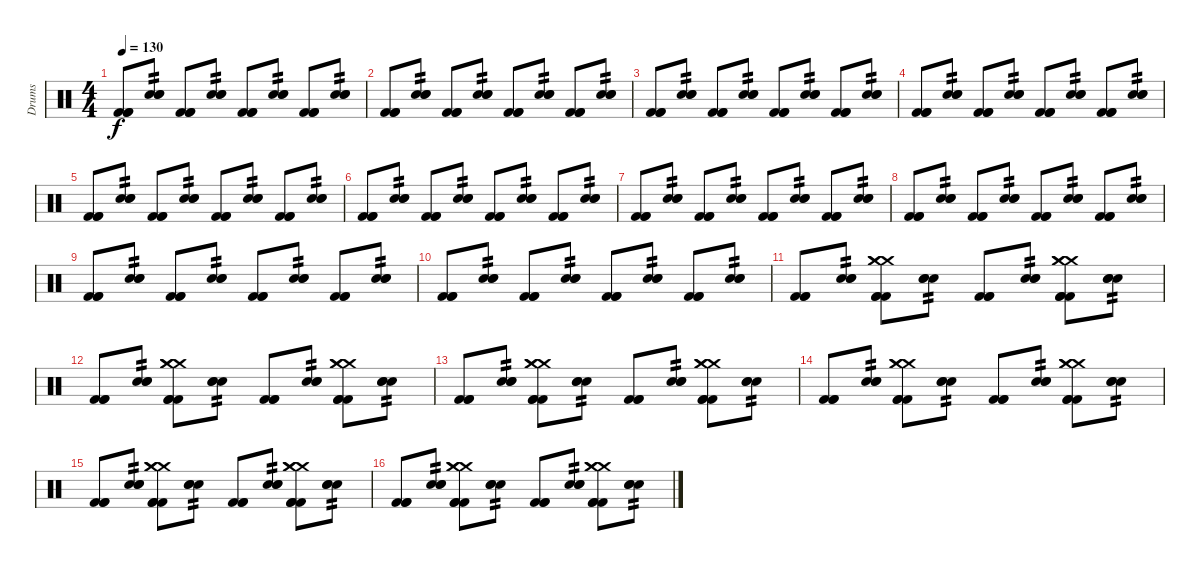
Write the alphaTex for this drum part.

\track ("Drums" "Drums") {instrument percussion}
\staff {score}
\articulation defaults
\ts (4 4)
\tempo 130
\clef neutral
\ks c
("Kick (hit) 2" "Kick (hit) 2" "Kick (hit) 2").8{dy f} ("Electric Snare (hit)" "Electric Snare (hit)" "Electric Snare (hit)").8{tp 2} ("Kick (hit) 2" "Kick (hit) 2" "Kick (hit) 2").8 ("Electric Snare (hit)" "Electric Snare (hit)" "Electric Snare (hit)").8{tp 2} ("Kick (hit) 2" "Kick (hit) 2" "Kick (hit) 2").8 ("Electric Snare (hit)" "Electric Snare (hit)" "Electric Snare (hit)").8{tp 2} ("Kick (hit) 2" "Kick (hit) 2" "Kick (hit) 2").8 ("Electric Snare (hit)" "Electric Snare (hit)" "Electric Snare (hit)").8{tp 2} |
("Kick (hit) 2" "Kick (hit) 2" "Kick (hit) 2").8 ("Electric Snare (hit)" "Electric Snare (hit)" "Electric Snare (hit)").8{tp 2} ("Kick (hit) 2" "Kick (hit) 2" "Kick (hit) 2").8 ("Electric Snare (hit)" "Electric Snare (hit)" "Electric Snare (hit)").8{tp 2} ("Kick (hit) 2" "Kick (hit) 2" "Kick (hit) 2").8 ("Electric Snare (hit)" "Electric Snare (hit)" "Electric Snare (hit)").8{tp 2} ("Kick (hit) 2" "Kick (hit) 2" "Kick (hit) 2").8 ("Electric Snare (hit)" "Electric Snare (hit)" "Electric Snare (hit)").8{tp 2} |
("Kick (hit) 2" "Kick (hit) 2" "Kick (hit) 2").8 ("Electric Snare (hit)" "Electric Snare (hit)" "Electric Snare (hit)").8{tp 2} ("Kick (hit) 2" "Kick (hit) 2" "Kick (hit) 2").8 ("Electric Snare (hit)" "Electric Snare (hit)" "Electric Snare (hit)").8{tp 2} ("Kick (hit) 2" "Kick (hit) 2" "Kick (hit) 2").8 ("Electric Snare (hit)" "Electric Snare (hit)" "Electric Snare (hit)").8{tp 2} ("Kick (hit) 2" "Kick (hit) 2" "Kick (hit) 2").8 ("Electric Snare (hit)" "Electric Snare (hit)" "Electric Snare (hit)").8{tp 2} |
("Kick (hit) 2" "Kick (hit) 2" "Kick (hit) 2").8 ("Electric Snare (hit)" "Electric Snare (hit)" "Electric Snare (hit)").8{tp 2} ("Kick (hit) 2" "Kick (hit) 2" "Kick (hit) 2").8 ("Electric Snare (hit)" "Electric Snare (hit)" "Electric Snare (hit)").8{tp 2} ("Kick (hit) 2" "Kick (hit) 2" "Kick (hit) 2").8 ("Electric Snare (hit)" "Electric Snare (hit)" "Electric Snare (hit)").8{tp 2} ("Kick (hit) 2" "Kick (hit) 2" "Kick (hit) 2").8 ("Electric Snare (hit)" "Electric Snare (hit)" "Electric Snare (hit)").8{tp 2} |
("Kick (hit) 2" "Kick (hit) 2" "Kick (hit) 2").8 ("Electric Snare (hit)" "Electric Snare (hit)" "Electric Snare (hit)").8{tp 2} ("Kick (hit) 2" "Kick (hit) 2" "Kick (hit) 2").8 ("Electric Snare (hit)" "Electric Snare (hit)" "Electric Snare (hit)").8{tp 2} ("Kick (hit) 2" "Kick (hit) 2" "Kick (hit) 2").8 ("Electric Snare (hit)" "Electric Snare (hit)" "Electric Snare (hit)").8{tp 2} ("Kick (hit) 2" "Kick (hit) 2" "Kick (hit) 2").8 ("Electric Snare (hit)" "Electric Snare (hit)" "Electric Snare (hit)").8{tp 2} |
("Kick (hit) 2" "Kick (hit) 2" "Kick (hit) 2").8 ("Electric Snare (hit)" "Electric Snare (hit)" "Electric Snare (hit)").8{tp 2} ("Kick (hit) 2" "Kick (hit) 2" "Kick (hit) 2").8 ("Electric Snare (hit)" "Electric Snare (hit)" "Electric Snare (hit)").8{tp 2} ("Kick (hit) 2" "Kick (hit) 2" "Kick (hit) 2").8 ("Electric Snare (hit)" "Electric Snare (hit)" "Electric Snare (hit)").8{tp 2} ("Kick (hit) 2" "Kick (hit) 2" "Kick (hit) 2").8 ("Electric Snare (hit)" "Electric Snare (hit)" "Electric Snare (hit)").8{tp 2} |
("Kick (hit) 2" "Kick (hit) 2" "Kick (hit) 2").8 ("Electric Snare (hit)" "Electric Snare (hit)" "Electric Snare (hit)").8{tp 2} ("Kick (hit) 2" "Kick (hit) 2" "Kick (hit) 2").8 ("Electric Snare (hit)" "Electric Snare (hit)" "Electric Snare (hit)").8{tp 2} ("Kick (hit) 2" "Kick (hit) 2" "Kick (hit) 2").8 ("Electric Snare (hit)" "Electric Snare (hit)" "Electric Snare (hit)").8{tp 2} ("Kick (hit) 2" "Kick (hit) 2" "Kick (hit) 2").8 ("Electric Snare (hit)" "Electric Snare (hit)" "Electric Snare (hit)").8{tp 2} |
("Kick (hit) 2" "Kick (hit) 2" "Kick (hit) 2").8 ("Electric Snare (hit)" "Electric Snare (hit)" "Electric Snare (hit)").8{tp 2} ("Kick (hit) 2" "Kick (hit) 2" "Kick (hit) 2").8 ("Electric Snare (hit)" "Electric Snare (hit)" "Electric Snare (hit)").8{tp 2} ("Kick (hit) 2" "Kick (hit) 2" "Kick (hit) 2").8 ("Electric Snare (hit)" "Electric Snare (hit)" "Electric Snare (hit)").8{tp 2} ("Kick (hit) 2" "Kick (hit) 2" "Kick (hit) 2").8 ("Electric Snare (hit)" "Electric Snare (hit)" "Electric Snare (hit)").8{tp 2} |
("Kick (hit) 2" "Kick (hit) 2" "Kick (hit) 2").8 ("Electric Snare (hit)" "Electric Snare (hit)" "Electric Snare (hit)").8{tp 2} ("Kick (hit) 2" "Kick (hit) 2" "Kick (hit) 2").8 ("Electric Snare (hit)" "Electric Snare (hit)" "Electric Snare (hit)").8{tp 2} ("Kick (hit) 2" "Kick (hit) 2" "Kick (hit) 2").8 ("Electric Snare (hit)" "Electric Snare (hit)" "Electric Snare (hit)").8{tp 2} ("Kick (hit) 2" "Kick (hit) 2" "Kick (hit) 2").8 ("Electric Snare (hit)" "Electric Snare (hit)" "Electric Snare (hit)").8{tp 2} |
("Kick (hit) 2" "Kick (hit) 2" "Kick (hit) 2").8 ("Electric Snare (hit)" "Electric Snare (hit)" "Electric Snare (hit)").8{tp 2} ("Kick (hit) 2" "Kick (hit) 2" "Kick (hit) 2").8 ("Electric Snare (hit)" "Electric Snare (hit)" "Electric Snare (hit)").8{tp 2} ("Kick (hit) 2" "Kick (hit) 2" "Kick (hit) 2").8 ("Electric Snare (hit)" "Electric Snare (hit)" "Electric Snare (hit)").8{tp 2} ("Kick (hit) 2" "Kick (hit) 2" "Kick (hit) 2").8 ("Electric Snare (hit)" "Electric Snare (hit)" "Electric Snare (hit)").8{tp 2} |
("Kick (hit) 2" "Kick (hit) 2" "Kick (hit) 2").8 ("Electric Snare (hit)" "Electric Snare (hit)" "Electric Snare (hit)").8{tp 2} ("Kick (hit) 2" "Kick (hit) 2" "Kick (hit) 2" "Crash medium (hit)" "Crash medium (hit)" "Crash medium (hit)").8 ("Electric Snare (hit)" "Electric Snare (hit)" "Electric Snare (hit)").8{tp 2} ("Kick (hit) 2" "Kick (hit) 2" "Kick (hit) 2").8 ("Electric Snare (hit)" "Electric Snare (hit)" "Electric Snare (hit)").8{tp 2} ("Kick (hit) 2" "Kick (hit) 2" "Kick (hit) 2" "Crash medium (hit)" "Crash medium (hit)" "Crash medium (hit)").8 ("Electric Snare (hit)" "Electric Snare (hit)" "Electric Snare (hit)").8{tp 2} |
("Kick (hit) 2" "Kick (hit) 2" "Kick (hit) 2").8 ("Electric Snare (hit)" "Electric Snare (hit)" "Electric Snare (hit)").8{tp 2} ("Kick (hit) 2" "Kick (hit) 2" "Kick (hit) 2" "Crash medium (hit)" "Crash medium (hit)" "Crash medium (hit)").8 ("Electric Snare (hit)" "Electric Snare (hit)" "Electric Snare (hit)").8{tp 2} ("Kick (hit) 2" "Kick (hit) 2" "Kick (hit) 2").8 ("Electric Snare (hit)" "Electric Snare (hit)" "Electric Snare (hit)").8{tp 2} ("Kick (hit) 2" "Kick (hit) 2" "Kick (hit) 2" "Crash medium (hit)" "Crash medium (hit)" "Crash medium (hit)").8 ("Electric Snare (hit)" "Electric Snare (hit)" "Electric Snare (hit)").8{tp 2} |
("Kick (hit) 2" "Kick (hit) 2" "Kick (hit) 2").8 ("Electric Snare (hit)" "Electric Snare (hit)" "Electric Snare (hit)").8{tp 2} ("Kick (hit) 2" "Kick (hit) 2" "Kick (hit) 2" "Crash medium (hit)" "Crash medium (hit)" "Crash medium (hit)").8 ("Electric Snare (hit)" "Electric Snare (hit)" "Electric Snare (hit)").8{tp 2} ("Kick (hit) 2" "Kick (hit) 2" "Kick (hit) 2").8 ("Electric Snare (hit)" "Electric Snare (hit)" "Electric Snare (hit)").8{tp 2} ("Kick (hit) 2" "Kick (hit) 2" "Kick (hit) 2" "Crash medium (hit)" "Crash medium (hit)" "Crash medium (hit)").8 ("Electric Snare (hit)" "Electric Snare (hit)" "Electric Snare (hit)").8{tp 2} |
("Kick (hit) 2" "Kick (hit) 2" "Kick (hit) 2").8 ("Electric Snare (hit)" "Electric Snare (hit)" "Electric Snare (hit)").8{tp 2} ("Kick (hit) 2" "Kick (hit) 2" "Kick (hit) 2" "Crash medium (hit)" "Crash medium (hit)" "Crash medium (hit)").8 ("Electric Snare (hit)" "Electric Snare (hit)" "Electric Snare (hit)").8{tp 2} ("Kick (hit) 2" "Kick (hit) 2" "Kick (hit) 2").8 ("Electric Snare (hit)" "Electric Snare (hit)" "Electric Snare (hit)").8{tp 2} ("Kick (hit) 2" "Kick (hit) 2" "Kick (hit) 2" "Crash medium (hit)" "Crash medium (hit)" "Crash medium (hit)").8 ("Electric Snare (hit)" "Electric Snare (hit)" "Electric Snare (hit)").8{tp 2} |
("Kick (hit) 2" "Kick (hit) 2" "Kick (hit) 2").8 ("Electric Snare (hit)" "Electric Snare (hit)" "Electric Snare (hit)").8{tp 2} ("Kick (hit) 2" "Kick (hit) 2" "Kick (hit) 2" "Crash medium (hit)" "Crash medium (hit)" "Crash medium (hit)").8 ("Electric Snare (hit)" "Electric Snare (hit)" "Electric Snare (hit)").8{tp 2} ("Kick (hit) 2" "Kick (hit) 2" "Kick (hit) 2").8 ("Electric Snare (hit)" "Electric Snare (hit)" "Electric Snare (hit)").8{tp 2} ("Kick (hit) 2" "Kick (hit) 2" "Kick (hit) 2" "Crash medium (hit)" "Crash medium (hit)" "Crash medium (hit)").8 ("Electric Snare (hit)" "Electric Snare (hit)" "Electric Snare (hit)").8{tp 2} |
("Kick (hit) 2" "Kick (hit) 2" "Kick (hit) 2").8 ("Electric Snare (hit)" "Electric Snare (hit)" "Electric Snare (hit)").8{tp 2} ("Kick (hit) 2" "Kick (hit) 2" "Kick (hit) 2" "Crash medium (hit)" "Crash medium (hit)" "Crash medium (hit)").8 ("Electric Snare (hit)" "Electric Snare (hit)" "Electric Snare (hit)").8{tp 2} ("Kick (hit) 2" "Kick (hit) 2" "Kick (hit) 2").8 ("Electric Snare (hit)" "Electric Snare (hit)" "Electric Snare (hit)").8{tp 2} ("Kick (hit) 2" "Kick (hit) 2" "Kick (hit) 2" "Crash medium (hit)" "Crash medium (hit)" "Crash medium (hit)").8 ("Electric Snare (hit)" "Electric Snare (hit)" "Electric Snare (hit)").8{tp 2}
